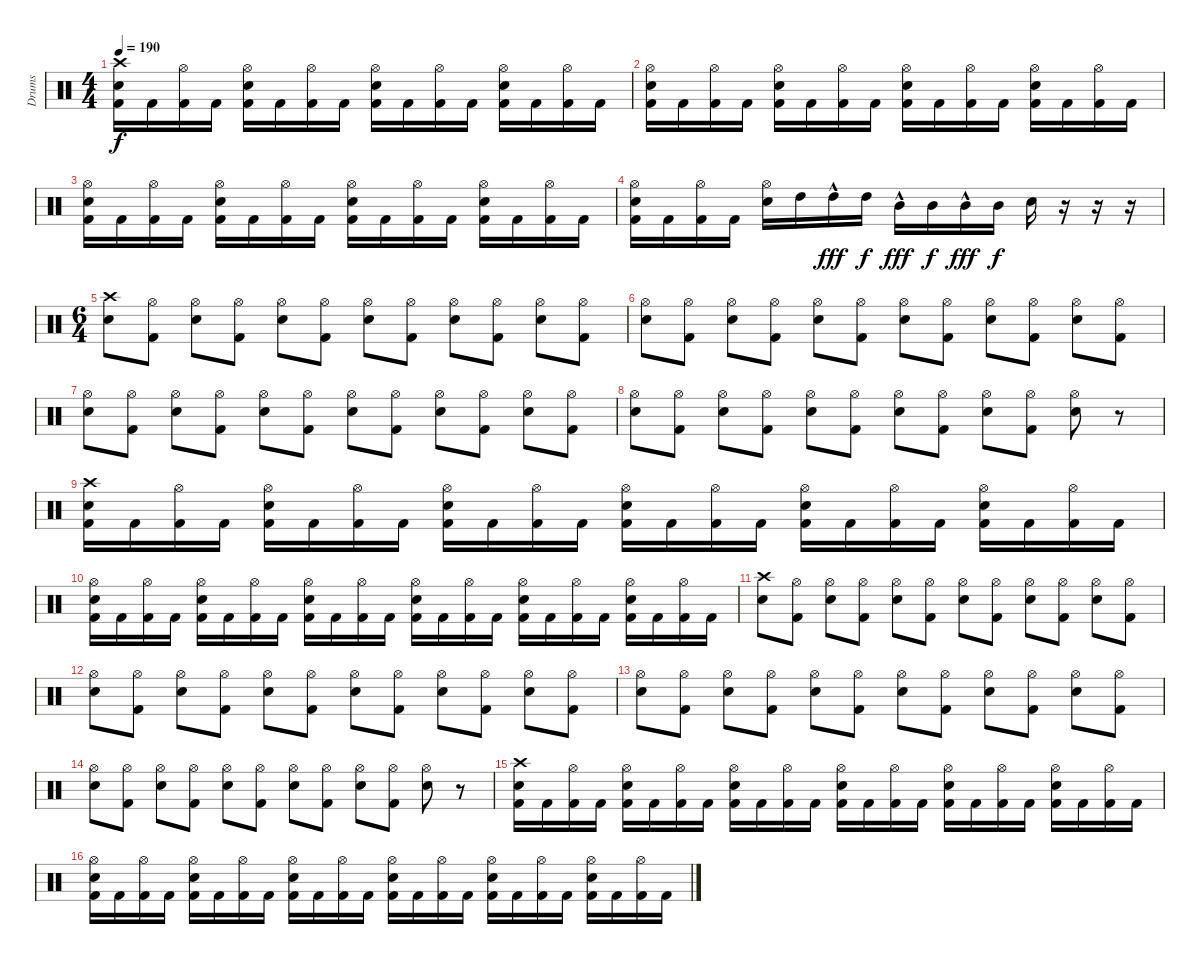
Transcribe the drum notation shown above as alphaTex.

\track ("Drums" "Drums") {instrument percussion}
\staff {score}
\articulation defaults
\ts (4 4)
\tempo 190
\clef neutral
\ks aminor
("Kick (hit) 2" "Electric Snare (hit)" "Crash high (hit)").16{dy f} "Kick (hit) 2".16 ("Kick (hit) 2" "Hi-Hat (open)").16 "Kick (hit) 2".16 ("Kick (hit) 2" "Electric Snare (hit)" "Hi-Hat (open)").16 "Kick (hit) 2".16 ("Kick (hit) 2" "Hi-Hat (open)").16 "Kick (hit) 2".16 ("Kick (hit) 2" "Electric Snare (hit)" "Hi-Hat (open)").16 "Kick (hit) 2".16 ("Kick (hit) 2" "Hi-Hat (open)").16 "Kick (hit) 2".16 ("Kick (hit) 2" "Electric Snare (hit)" "Hi-Hat (open)").16 "Kick (hit) 2".16 ("Kick (hit) 2" "Hi-Hat (open)").16 "Kick (hit) 2".16 |
("Kick (hit) 2" "Electric Snare (hit)" "Hi-Hat (open)").16 "Kick (hit) 2".16 ("Kick (hit) 2" "Hi-Hat (open)").16 "Kick (hit) 2".16 ("Kick (hit) 2" "Electric Snare (hit)" "Hi-Hat (open)").16 "Kick (hit) 2".16 ("Kick (hit) 2" "Hi-Hat (open)").16 "Kick (hit) 2".16 ("Kick (hit) 2" "Electric Snare (hit)" "Hi-Hat (open)").16 "Kick (hit) 2".16 ("Kick (hit) 2" "Hi-Hat (open)").16 "Kick (hit) 2".16 ("Kick (hit) 2" "Electric Snare (hit)" "Hi-Hat (open)").16 "Kick (hit) 2".16 ("Kick (hit) 2" "Hi-Hat (open)").16 "Kick (hit) 2".16 |
("Kick (hit) 2" "Electric Snare (hit)" "Hi-Hat (open)").16 "Kick (hit) 2".16 ("Kick (hit) 2" "Hi-Hat (open)").16 "Kick (hit) 2".16 ("Kick (hit) 2" "Electric Snare (hit)" "Hi-Hat (open)").16 "Kick (hit) 2".16 ("Kick (hit) 2" "Hi-Hat (open)").16 "Kick (hit) 2".16 ("Kick (hit) 2" "Electric Snare (hit)" "Hi-Hat (open)").16 "Kick (hit) 2".16 ("Kick (hit) 2" "Hi-Hat (open)").16 "Kick (hit) 2".16 ("Kick (hit) 2" "Electric Snare (hit)" "Hi-Hat (open)").16 "Kick (hit) 2".16 ("Kick (hit) 2" "Hi-Hat (open)").16 "Kick (hit) 2".16 |
("Kick (hit) 2" "Electric Snare (hit)" "Hi-Hat (open)").16 "Kick (hit) 2".16 ("Kick (hit) 2" "Hi-Hat (open)").16 "Kick (hit) 2".16 ("Electric Snare (hit)" "Hi-Hat (open)").16 "High Tom (hit)".16 "High Tom (hit)"{hac}.16{dy fff} "High Tom (hit)".16{dy f} "Mid Tom (hit)"{hac}.16{dy fff} "Mid Tom (hit)".16{dy f} "Mid Tom (hit)"{hac}.16{dy fff} "Mid Tom (hit)".16{dy f} "Electric Snare (hit)".16 r.16 r.16 r.16 |
\ts (6 4)
("Electric Snare (hit)" "Crash high (hit)").8 ("Kick (hit) 2" "Hi-Hat (open)").8 ("Electric Snare (hit)" "Hi-Hat (open)").8 ("Kick (hit) 2" "Hi-Hat (open)").8 ("Electric Snare (hit)" "Hi-Hat (open)").8 ("Kick (hit) 2" "Hi-Hat (open)").8 ("Electric Snare (hit)" "Hi-Hat (open)").8 ("Kick (hit) 2" "Hi-Hat (open)").8 ("Electric Snare (hit)" "Hi-Hat (open)").8 ("Kick (hit) 2" "Hi-Hat (open)").8 ("Electric Snare (hit)" "Hi-Hat (open)").8 ("Kick (hit) 2" "Hi-Hat (open)").8 |
("Electric Snare (hit)" "Hi-Hat (open)").8 ("Kick (hit) 2" "Hi-Hat (open)").8 ("Electric Snare (hit)" "Hi-Hat (open)").8 ("Kick (hit) 2" "Hi-Hat (open)").8 ("Electric Snare (hit)" "Hi-Hat (open)").8 ("Kick (hit) 2" "Hi-Hat (open)").8 ("Electric Snare (hit)" "Hi-Hat (open)").8 ("Kick (hit) 2" "Hi-Hat (open)").8 ("Electric Snare (hit)" "Hi-Hat (open)").8 ("Kick (hit) 2" "Hi-Hat (open)").8 ("Electric Snare (hit)" "Hi-Hat (open)").8 ("Kick (hit) 2" "Hi-Hat (open)").8 |
("Electric Snare (hit)" "Hi-Hat (open)").8 ("Kick (hit) 2" "Hi-Hat (open)").8 ("Electric Snare (hit)" "Hi-Hat (open)").8 ("Kick (hit) 2" "Hi-Hat (open)").8 ("Electric Snare (hit)" "Hi-Hat (open)").8 ("Kick (hit) 2" "Hi-Hat (open)").8 ("Electric Snare (hit)" "Hi-Hat (open)").8 ("Kick (hit) 2" "Hi-Hat (open)").8 ("Electric Snare (hit)" "Hi-Hat (open)").8 ("Kick (hit) 2" "Hi-Hat (open)").8 ("Electric Snare (hit)" "Hi-Hat (open)").8 ("Kick (hit) 2" "Hi-Hat (open)").8 |
("Electric Snare (hit)" "Hi-Hat (open)").8 ("Kick (hit) 2" "Hi-Hat (open)").8 ("Electric Snare (hit)" "Hi-Hat (open)").8 ("Kick (hit) 2" "Hi-Hat (open)").8 ("Electric Snare (hit)" "Hi-Hat (open)").8 ("Kick (hit) 2" "Hi-Hat (open)").8 ("Electric Snare (hit)" "Hi-Hat (open)").8 ("Kick (hit) 2" "Hi-Hat (open)").8 ("Electric Snare (hit)" "Hi-Hat (open)").8 ("Kick (hit) 2" "Hi-Hat (open)").8 ("Electric Snare (hit)" "Hi-Hat (open)").8 r.8 |
("Kick (hit) 2" "Electric Snare (hit)" "Crash high (hit)").16 "Kick (hit) 2".16 ("Kick (hit) 2" "Hi-Hat (open)").16 "Kick (hit) 2".16 ("Kick (hit) 2" "Electric Snare (hit)" "Hi-Hat (open)").16 "Kick (hit) 2".16 ("Kick (hit) 2" "Hi-Hat (open)").16 "Kick (hit) 2".16 ("Kick (hit) 2" "Electric Snare (hit)" "Hi-Hat (open)").16 "Kick (hit) 2".16 ("Kick (hit) 2" "Hi-Hat (open)").16 "Kick (hit) 2".16 ("Kick (hit) 2" "Electric Snare (hit)" "Hi-Hat (open)").16 "Kick (hit) 2".16 ("Kick (hit) 2" "Hi-Hat (open)").16 "Kick (hit) 2".16 ("Kick (hit) 2" "Electric Snare (hit)" "Hi-Hat (open)").16 "Kick (hit) 2".16 ("Kick (hit) 2" "Hi-Hat (open)").16 "Kick (hit) 2".16 ("Kick (hit) 2" "Electric Snare (hit)" "Hi-Hat (open)").16 "Kick (hit) 2".16 ("Kick (hit) 2" "Hi-Hat (open)").16 "Kick (hit) 2".16 |
("Kick (hit) 2" "Electric Snare (hit)" "Hi-Hat (open)").16 "Kick (hit) 2".16 ("Kick (hit) 2" "Hi-Hat (open)").16 "Kick (hit) 2".16 ("Kick (hit) 2" "Electric Snare (hit)" "Hi-Hat (open)").16 "Kick (hit) 2".16 ("Kick (hit) 2" "Hi-Hat (open)").16 "Kick (hit) 2".16 ("Kick (hit) 2" "Electric Snare (hit)" "Hi-Hat (open)").16 "Kick (hit) 2".16 ("Kick (hit) 2" "Hi-Hat (open)").16 "Kick (hit) 2".16 ("Kick (hit) 2" "Electric Snare (hit)" "Hi-Hat (open)").16 "Kick (hit) 2".16 ("Kick (hit) 2" "Hi-Hat (open)").16 "Kick (hit) 2".16 ("Kick (hit) 2" "Electric Snare (hit)" "Hi-Hat (open)").16 "Kick (hit) 2".16 ("Kick (hit) 2" "Hi-Hat (open)").16 "Kick (hit) 2".16 ("Kick (hit) 2" "Electric Snare (hit)" "Hi-Hat (open)").16 "Kick (hit) 2".16 ("Kick (hit) 2" "Hi-Hat (open)").16 "Kick (hit) 2".16 |
("Electric Snare (hit)" "Crash high (hit)").8 ("Kick (hit) 2" "Hi-Hat (open)").8 ("Electric Snare (hit)" "Hi-Hat (open)").8 ("Kick (hit) 2" "Hi-Hat (open)").8 ("Electric Snare (hit)" "Hi-Hat (open)").8 ("Kick (hit) 2" "Hi-Hat (open)").8 ("Electric Snare (hit)" "Hi-Hat (open)").8 ("Kick (hit) 2" "Hi-Hat (open)").8 ("Electric Snare (hit)" "Hi-Hat (open)").8 ("Kick (hit) 2" "Hi-Hat (open)").8 ("Electric Snare (hit)" "Hi-Hat (open)").8 ("Kick (hit) 2" "Hi-Hat (open)").8 |
("Electric Snare (hit)" "Hi-Hat (open)").8 ("Kick (hit) 2" "Hi-Hat (open)").8 ("Electric Snare (hit)" "Hi-Hat (open)").8 ("Kick (hit) 2" "Hi-Hat (open)").8 ("Electric Snare (hit)" "Hi-Hat (open)").8 ("Kick (hit) 2" "Hi-Hat (open)").8 ("Electric Snare (hit)" "Hi-Hat (open)").8 ("Kick (hit) 2" "Hi-Hat (open)").8 ("Electric Snare (hit)" "Hi-Hat (open)").8 ("Kick (hit) 2" "Hi-Hat (open)").8 ("Electric Snare (hit)" "Hi-Hat (open)").8 ("Kick (hit) 2" "Hi-Hat (open)").8 |
("Electric Snare (hit)" "Hi-Hat (open)").8 ("Kick (hit) 2" "Hi-Hat (open)").8 ("Electric Snare (hit)" "Hi-Hat (open)").8 ("Kick (hit) 2" "Hi-Hat (open)").8 ("Electric Snare (hit)" "Hi-Hat (open)").8 ("Kick (hit) 2" "Hi-Hat (open)").8 ("Electric Snare (hit)" "Hi-Hat (open)").8 ("Kick (hit) 2" "Hi-Hat (open)").8 ("Electric Snare (hit)" "Hi-Hat (open)").8 ("Kick (hit) 2" "Hi-Hat (open)").8 ("Electric Snare (hit)" "Hi-Hat (open)").8 ("Kick (hit) 2" "Hi-Hat (open)").8 |
("Electric Snare (hit)" "Hi-Hat (open)").8 ("Kick (hit) 2" "Hi-Hat (open)").8 ("Electric Snare (hit)" "Hi-Hat (open)").8 ("Kick (hit) 2" "Hi-Hat (open)").8 ("Electric Snare (hit)" "Hi-Hat (open)").8 ("Kick (hit) 2" "Hi-Hat (open)").8 ("Electric Snare (hit)" "Hi-Hat (open)").8 ("Kick (hit) 2" "Hi-Hat (open)").8 ("Electric Snare (hit)" "Hi-Hat (open)").8 ("Kick (hit) 2" "Hi-Hat (open)").8 ("Electric Snare (hit)" "Hi-Hat (open)").8 r.8 |
("Kick (hit) 2" "Electric Snare (hit)" "Crash high (hit)").16 "Kick (hit) 2".16 ("Kick (hit) 2" "Hi-Hat (open)").16 "Kick (hit) 2".16 ("Kick (hit) 2" "Electric Snare (hit)" "Hi-Hat (open)").16 "Kick (hit) 2".16 ("Kick (hit) 2" "Hi-Hat (open)").16 "Kick (hit) 2".16 ("Kick (hit) 2" "Electric Snare (hit)" "Hi-Hat (open)").16 "Kick (hit) 2".16 ("Kick (hit) 2" "Hi-Hat (open)").16 "Kick (hit) 2".16 ("Kick (hit) 2" "Electric Snare (hit)" "Hi-Hat (open)").16 "Kick (hit) 2".16 ("Kick (hit) 2" "Hi-Hat (open)").16 "Kick (hit) 2".16 ("Kick (hit) 2" "Electric Snare (hit)" "Hi-Hat (open)").16 "Kick (hit) 2".16 ("Kick (hit) 2" "Hi-Hat (open)").16 "Kick (hit) 2".16 ("Kick (hit) 2" "Electric Snare (hit)" "Hi-Hat (open)").16 "Kick (hit) 2".16 ("Kick (hit) 2" "Hi-Hat (open)").16 "Kick (hit) 2".16 |
("Kick (hit) 2" "Electric Snare (hit)" "Hi-Hat (open)").16 "Kick (hit) 2".16 ("Kick (hit) 2" "Hi-Hat (open)").16 "Kick (hit) 2".16 ("Kick (hit) 2" "Electric Snare (hit)" "Hi-Hat (open)").16 "Kick (hit) 2".16 ("Kick (hit) 2" "Hi-Hat (open)").16 "Kick (hit) 2".16 ("Kick (hit) 2" "Electric Snare (hit)" "Hi-Hat (open)").16 "Kick (hit) 2".16 ("Kick (hit) 2" "Hi-Hat (open)").16 "Kick (hit) 2".16 ("Kick (hit) 2" "Electric Snare (hit)" "Hi-Hat (open)").16 "Kick (hit) 2".16 ("Kick (hit) 2" "Hi-Hat (open)").16 "Kick (hit) 2".16 ("Kick (hit) 2" "Electric Snare (hit)" "Hi-Hat (open)").16 "Kick (hit) 2".16 ("Kick (hit) 2" "Hi-Hat (open)").16 "Kick (hit) 2".16 ("Kick (hit) 2" "Electric Snare (hit)" "Hi-Hat (open)").16 "Kick (hit) 2".16 ("Kick (hit) 2" "Hi-Hat (open)").16 "Kick (hit) 2".16
